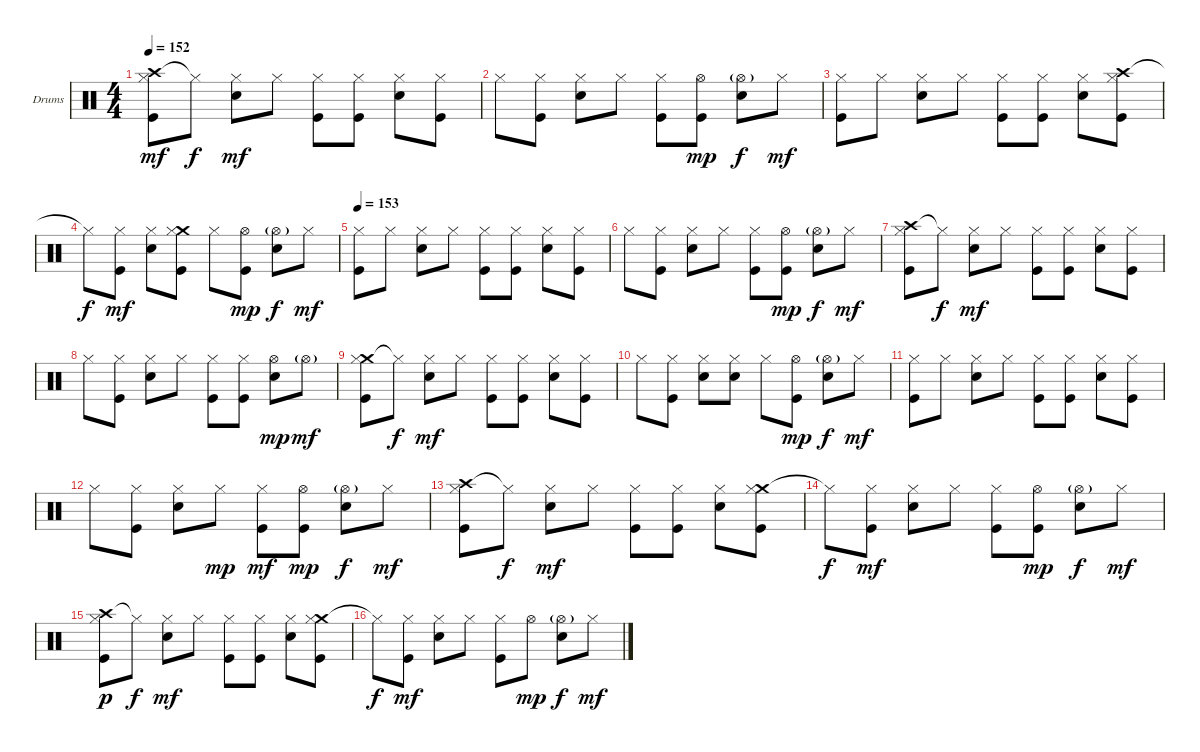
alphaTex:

\bracketExtendMode groupsimilarinstruments
\firstSystemTrackNameOrientation horizontal
\otherSystemsTrackNameOrientation horizontal
\track ("Drumkit" "Drums") {instrument percussion}
\staff {score}
\articulation defaults
\ts (4 4)
\tempo 152
\clef neutral
\ks c
("Crash high (hit)" "Hi-Hat (closed)" "Kick (hit)").8{dy mf} "Hi-Hat (closed)"{t}.8{dy f} ("Hi-Hat (closed)" "Snare (hit) 2").8{dy mf} "Hi-Hat (closed)".8 ("Hi-Hat (closed)" "Kick (hit)").8 ("Hi-Hat (closed)" "Kick (hit)").8 ("Hi-Hat (closed)" "Snare (hit) 2").8 ("Hi-Hat (closed)" "Kick (hit)").8 |
"Hi-Hat (closed)".8 ("Hi-Hat (closed)" "Kick (hit)").8 ("Hi-Hat (closed)" "Snare (hit) 2").8 "Hi-Hat (closed)".8 ("Hi-Hat (closed)" "Kick (hit)").8 ("Hi-Hat (open)" "Kick (hit)").8{dy mp} ("Hi-Hat (open)"{g} "Snare (hit) 2").8{dy f} "Hi-Hat (closed)".8{dy mf} |
("Hi-Hat (closed)" "Kick (hit)").8 "Hi-Hat (closed)".8 ("Hi-Hat (closed)" "Snare (hit) 2").8 "Hi-Hat (closed)".8 ("Hi-Hat (closed)" "Kick (hit)").8 ("Hi-Hat (closed)" "Kick (hit)").8 ("Hi-Hat (closed)" "Snare (hit) 2").8 ("Crash high (hit)" "Hi-Hat (closed)" "Kick (hit)").8 |
"Hi-Hat (closed)"{t}.8{dy f} ("Hi-Hat (closed)" "Kick (hit)").8{dy mf} ("Hi-Hat (closed)" "Snare (hit) 2").8 ("Crash medium (hit)" "Hi-Hat (closed)" "Kick (hit)").8 "Hi-Hat (closed)".8 ("Hi-Hat (open)" "Kick (hit)").8{dy mp} ("Hi-Hat (open)"{g} "Snare (hit) 2").8{dy f} "Hi-Hat (closed)".8{dy mf} |
\tempo 153
("Hi-Hat (closed)" "Kick (hit)").8 "Hi-Hat (closed)".8 ("Hi-Hat (closed)" "Snare (hit) 2").8 "Hi-Hat (closed)".8 ("Hi-Hat (closed)" "Kick (hit)").8 ("Hi-Hat (closed)" "Kick (hit)").8 ("Hi-Hat (closed)" "Snare (hit) 2").8 ("Hi-Hat (closed)" "Kick (hit)").8 |
"Hi-Hat (closed)".8 ("Hi-Hat (closed)" "Kick (hit)").8 ("Hi-Hat (closed)" "Snare (hit) 2").8 "Hi-Hat (closed)".8 ("Hi-Hat (closed)" "Kick (hit)").8 ("Hi-Hat (open)" "Kick (hit)").8{dy mp} ("Hi-Hat (open)"{g} "Snare (hit) 2").8{dy f} "Hi-Hat (closed)".8{dy mf} |
("Crash high (hit)" "Hi-Hat (closed)" "Kick (hit)").8 "Hi-Hat (closed)"{t}.8{dy f} ("Hi-Hat (closed)" "Snare (hit) 2").8{dy mf} "Hi-Hat (closed)".8 ("Hi-Hat (closed)" "Kick (hit)").8 ("Hi-Hat (closed)" "Kick (hit)").8 ("Hi-Hat (closed)" "Snare (hit) 2").8 ("Hi-Hat (closed)" "Kick (hit)").8 |
"Hi-Hat (closed)".8 ("Hi-Hat (closed)" "Kick (hit)").8 ("Hi-Hat (closed)" "Snare (hit) 2").8 "Hi-Hat (closed)".8 ("Hi-Hat (closed)" "Kick (hit)").8 ("Hi-Hat (closed)" "Kick (hit)").8 ("Hi-Hat (open)" "Snare (hit) 2").8{dy mp} "Hi-Hat (open)"{g}.8{dy mf} |
("Crash medium (hit)" "Hi-Hat (closed)" "Kick (hit)").8 "Hi-Hat (closed)"{t}.8{dy f} ("Hi-Hat (closed)" "Snare (hit) 2").8{dy mf} "Hi-Hat (closed)".8 ("Hi-Hat (closed)" "Kick (hit)").8 ("Hi-Hat (closed)" "Kick (hit)").8 ("Hi-Hat (closed)" "Snare (hit) 2").8 ("Hi-Hat (closed)" "Kick (hit)").8 |
"Hi-Hat (closed)".8 ("Hi-Hat (closed)" "Kick (hit)").8 ("Hi-Hat (closed)" "Snare (hit) 2").8 ("Hi-Hat (closed)" "Snare (hit) 2").8 "Hi-Hat (closed)".8 ("Hi-Hat (open)" "Kick (hit)").8{dy mp} ("Hi-Hat (open)"{g} "Snare (hit) 2").8{dy f} "Hi-Hat (closed)".8{dy mf} |
("Hi-Hat (closed)" "Kick (hit)").8 "Hi-Hat (closed)".8 ("Hi-Hat (closed)" "Snare (hit) 2").8 "Hi-Hat (closed)".8 ("Hi-Hat (closed)" "Kick (hit)").8 ("Hi-Hat (closed)" "Kick (hit)").8 ("Hi-Hat (closed)" "Snare (hit) 2").8 ("Hi-Hat (closed)" "Kick (hit)").8 |
"Hi-Hat (closed)".8 ("Hi-Hat (closed)" "Kick (hit)").8 ("Hi-Hat (closed)" "Snare (hit) 2").8 "Hi-Hat (closed)".8{dy mp} ("Hi-Hat (closed)" "Kick (hit)").8{dy mf} ("Hi-Hat (open)" "Kick (hit)").8{dy mp} ("Hi-Hat (open)"{g} "Snare (hit) 2").8{dy f} "Hi-Hat (closed)".8{dy mf} |
("Crash high (hit)" "Hi-Hat (closed)" "Kick (hit)").8 "Hi-Hat (closed)"{t}.8{dy f} ("Hi-Hat (closed)" "Snare (hit) 2").8{dy mf} "Hi-Hat (closed)".8 ("Hi-Hat (closed)" "Kick (hit)").8 ("Hi-Hat (closed)" "Kick (hit)").8 ("Hi-Hat (closed)" "Snare (hit) 2").8 ("Crash medium (hit)" "Hi-Hat (closed)" "Kick (hit)").8 |
"Hi-Hat (closed)"{t}.8{dy f} ("Hi-Hat (closed)" "Kick (hit)").8{dy mf} ("Hi-Hat (closed)" "Snare (hit) 2").8 "Hi-Hat (closed)".8 ("Hi-Hat (closed)" "Kick (hit)").8 ("Hi-Hat (open)" "Kick (hit)").8{dy mp} ("Hi-Hat (open)"{g} "Snare (hit) 2").8{dy f} "Hi-Hat (closed)".8{dy mf} |
("Crash high (hit)" "Hi-Hat (closed)" "Kick (hit)").8{dy p} "Hi-Hat (closed)"{t}.8{dy f} ("Hi-Hat (closed)" "Snare (hit) 2").8{dy mf} "Hi-Hat (closed)".8 ("Hi-Hat (closed)" "Kick (hit)").8 ("Hi-Hat (closed)" "Kick (hit)").8 ("Hi-Hat (closed)" "Snare (hit) 2").8 ("Crash medium (hit)" "Hi-Hat (closed)" "Kick (hit)").8 |
"Hi-Hat (closed)"{t}.8{dy f} ("Hi-Hat (closed)" "Kick (hit)").8{dy mf} ("Hi-Hat (closed)" "Snare (hit) 2").8 "Hi-Hat (closed)".8 ("Hi-Hat (closed)" "Kick (hit)").8 "Hi-Hat (open)".8{dy mp} ("Hi-Hat (open)"{g} "Snare (hit) 2").8{dy f} "Hi-Hat (closed)".8{dy mf}
